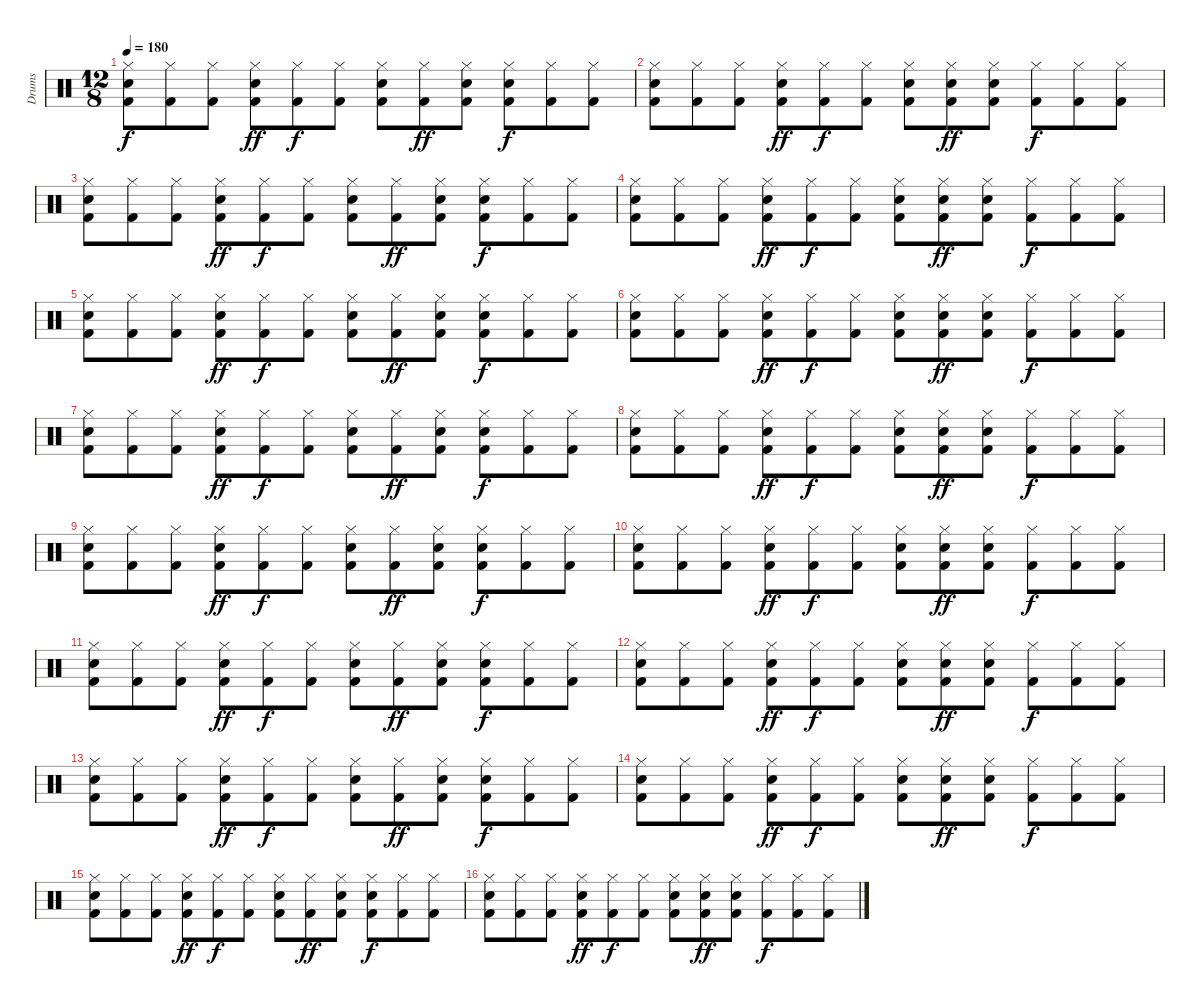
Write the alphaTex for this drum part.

\track ("Drums" "Drums") {instrument percussion}
\staff {score}
\articulation defaults
\ts (12 8)
\tempo 180
\clef neutral
\ks c
("Hi-Hat (closed)" "Electric Snare (hit)" "Kick (hit) 2").8{dy f} ("Hi-Hat (closed)" "Kick (hit) 2").8 ("Hi-Hat (closed)" "Kick (hit) 2").8 ("Hi-Hat (closed)" "Electric Snare (hit)" "Kick (hit) 2").8{dy ff} ("Hi-Hat (closed)" "Kick (hit) 2").8{dy f} ("Hi-Hat (closed)" "Kick (hit) 2").8 ("Hi-Hat (closed)" "Electric Snare (hit)" "Kick (hit) 2").8 ("Hi-Hat (closed)" "Kick (hit) 2").8{dy ff} ("Hi-Hat (closed)" "Electric Snare (hit)" "Kick (hit) 2").8 ("Hi-Hat (closed)" "Electric Snare (hit)" "Kick (hit) 2").8{dy f} ("Hi-Hat (closed)" "Kick (hit) 2").8 ("Hi-Hat (closed)" "Kick (hit) 2").8 |
("Hi-Hat (closed)" "Electric Snare (hit)" "Kick (hit) 2").8 ("Hi-Hat (closed)" "Kick (hit) 2").8 ("Hi-Hat (closed)" "Kick (hit) 2").8 ("Hi-Hat (closed)" "Electric Snare (hit)" "Kick (hit) 2").8{dy ff} ("Hi-Hat (closed)" "Kick (hit) 2").8{dy f} ("Hi-Hat (closed)" "Kick (hit) 2").8 ("Hi-Hat (closed)" "Electric Snare (hit)" "Kick (hit) 2").8 ("Hi-Hat (closed)" "Electric Snare (hit)" "Kick (hit) 2").8{dy ff} ("Hi-Hat (closed)" "Electric Snare (hit)" "Kick (hit) 2").8 ("Hi-Hat (closed)" "Kick (hit) 2").8{dy f} ("Hi-Hat (closed)" "Kick (hit) 2").8 ("Hi-Hat (closed)" "Kick (hit) 2").8 |
("Hi-Hat (closed)" "Electric Snare (hit)" "Kick (hit) 2").8 ("Hi-Hat (closed)" "Kick (hit) 2").8 ("Hi-Hat (closed)" "Kick (hit) 2").8 ("Hi-Hat (closed)" "Electric Snare (hit)" "Kick (hit) 2").8{dy ff} ("Hi-Hat (closed)" "Kick (hit) 2").8{dy f} ("Hi-Hat (closed)" "Kick (hit) 2").8 ("Hi-Hat (closed)" "Electric Snare (hit)" "Kick (hit) 2").8 ("Hi-Hat (closed)" "Kick (hit) 2").8{dy ff} ("Hi-Hat (closed)" "Electric Snare (hit)" "Kick (hit) 2").8 ("Hi-Hat (closed)" "Electric Snare (hit)" "Kick (hit) 2").8{dy f} ("Hi-Hat (closed)" "Kick (hit) 2").8 ("Hi-Hat (closed)" "Kick (hit) 2").8 |
("Hi-Hat (closed)" "Electric Snare (hit)" "Kick (hit) 2").8 ("Hi-Hat (closed)" "Kick (hit) 2").8 ("Hi-Hat (closed)" "Kick (hit) 2").8 ("Hi-Hat (closed)" "Electric Snare (hit)" "Kick (hit) 2").8{dy ff} ("Hi-Hat (closed)" "Kick (hit) 2").8{dy f} ("Hi-Hat (closed)" "Kick (hit) 2").8 ("Hi-Hat (closed)" "Electric Snare (hit)" "Kick (hit) 2").8 ("Hi-Hat (closed)" "Electric Snare (hit)" "Kick (hit) 2").8{dy ff} ("Hi-Hat (closed)" "Electric Snare (hit)" "Kick (hit) 2").8 ("Hi-Hat (closed)" "Kick (hit) 2").8{dy f} ("Hi-Hat (closed)" "Kick (hit) 2").8 ("Hi-Hat (closed)" "Kick (hit) 2").8 |
("Hi-Hat (closed)" "Electric Snare (hit)" "Kick (hit) 2").8 ("Hi-Hat (closed)" "Kick (hit) 2").8 ("Hi-Hat (closed)" "Kick (hit) 2").8 ("Hi-Hat (closed)" "Electric Snare (hit)" "Kick (hit) 2").8{dy ff} ("Hi-Hat (closed)" "Kick (hit) 2").8{dy f} ("Hi-Hat (closed)" "Kick (hit) 2").8 ("Hi-Hat (closed)" "Electric Snare (hit)" "Kick (hit) 2").8 ("Hi-Hat (closed)" "Kick (hit) 2").8{dy ff} ("Hi-Hat (closed)" "Electric Snare (hit)" "Kick (hit) 2").8 ("Hi-Hat (closed)" "Electric Snare (hit)" "Kick (hit) 2").8{dy f} ("Hi-Hat (closed)" "Kick (hit) 2").8 ("Hi-Hat (closed)" "Kick (hit) 2").8 |
("Hi-Hat (closed)" "Electric Snare (hit)" "Kick (hit) 2").8 ("Hi-Hat (closed)" "Kick (hit) 2").8 ("Hi-Hat (closed)" "Kick (hit) 2").8 ("Hi-Hat (closed)" "Electric Snare (hit)" "Kick (hit) 2").8{dy ff} ("Hi-Hat (closed)" "Kick (hit) 2").8{dy f} ("Hi-Hat (closed)" "Kick (hit) 2").8 ("Hi-Hat (closed)" "Electric Snare (hit)" "Kick (hit) 2").8 ("Hi-Hat (closed)" "Electric Snare (hit)" "Kick (hit) 2").8{dy ff} ("Hi-Hat (closed)" "Electric Snare (hit)" "Kick (hit) 2").8 ("Hi-Hat (closed)" "Kick (hit) 2").8{dy f} ("Hi-Hat (closed)" "Kick (hit) 2").8 ("Hi-Hat (closed)" "Kick (hit) 2").8 |
("Hi-Hat (closed)" "Electric Snare (hit)" "Kick (hit) 2").8 ("Hi-Hat (closed)" "Kick (hit) 2").8 ("Hi-Hat (closed)" "Kick (hit) 2").8 ("Hi-Hat (closed)" "Electric Snare (hit)" "Kick (hit) 2").8{dy ff} ("Hi-Hat (closed)" "Kick (hit) 2").8{dy f} ("Hi-Hat (closed)" "Kick (hit) 2").8 ("Hi-Hat (closed)" "Electric Snare (hit)" "Kick (hit) 2").8 ("Hi-Hat (closed)" "Kick (hit) 2").8{dy ff} ("Hi-Hat (closed)" "Electric Snare (hit)" "Kick (hit) 2").8 ("Hi-Hat (closed)" "Electric Snare (hit)" "Kick (hit) 2").8{dy f} ("Hi-Hat (closed)" "Kick (hit) 2").8 ("Hi-Hat (closed)" "Kick (hit) 2").8 |
("Hi-Hat (closed)" "Electric Snare (hit)" "Kick (hit) 2").8 ("Hi-Hat (closed)" "Kick (hit) 2").8 ("Hi-Hat (closed)" "Kick (hit) 2").8 ("Hi-Hat (closed)" "Electric Snare (hit)" "Kick (hit) 2").8{dy ff} ("Hi-Hat (closed)" "Kick (hit) 2").8{dy f} ("Hi-Hat (closed)" "Kick (hit) 2").8 ("Hi-Hat (closed)" "Electric Snare (hit)" "Kick (hit) 2").8 ("Hi-Hat (closed)" "Electric Snare (hit)" "Kick (hit) 2").8{dy ff} ("Hi-Hat (closed)" "Electric Snare (hit)" "Kick (hit) 2").8 ("Hi-Hat (closed)" "Kick (hit) 2").8{dy f} ("Hi-Hat (closed)" "Kick (hit) 2").8 ("Hi-Hat (closed)" "Kick (hit) 2").8 |
("Hi-Hat (closed)" "Electric Snare (hit)" "Kick (hit) 2").8 ("Hi-Hat (closed)" "Kick (hit) 2").8 ("Hi-Hat (closed)" "Kick (hit) 2").8 ("Hi-Hat (closed)" "Electric Snare (hit)" "Kick (hit) 2").8{dy ff} ("Hi-Hat (closed)" "Kick (hit) 2").8{dy f} ("Hi-Hat (closed)" "Kick (hit) 2").8 ("Hi-Hat (closed)" "Electric Snare (hit)" "Kick (hit) 2").8 ("Hi-Hat (closed)" "Kick (hit) 2").8{dy ff} ("Hi-Hat (closed)" "Electric Snare (hit)" "Kick (hit) 2").8 ("Hi-Hat (closed)" "Electric Snare (hit)" "Kick (hit) 2").8{dy f} ("Hi-Hat (closed)" "Kick (hit) 2").8 ("Hi-Hat (closed)" "Kick (hit) 2").8 |
("Hi-Hat (closed)" "Electric Snare (hit)" "Kick (hit) 2").8 ("Hi-Hat (closed)" "Kick (hit) 2").8 ("Hi-Hat (closed)" "Kick (hit) 2").8 ("Hi-Hat (closed)" "Electric Snare (hit)" "Kick (hit) 2").8{dy ff} ("Hi-Hat (closed)" "Kick (hit) 2").8{dy f} ("Hi-Hat (closed)" "Kick (hit) 2").8 ("Hi-Hat (closed)" "Electric Snare (hit)" "Kick (hit) 2").8 ("Hi-Hat (closed)" "Electric Snare (hit)" "Kick (hit) 2").8{dy ff} ("Hi-Hat (closed)" "Electric Snare (hit)" "Kick (hit) 2").8 ("Hi-Hat (closed)" "Kick (hit) 2").8{dy f} ("Hi-Hat (closed)" "Kick (hit) 2").8 ("Hi-Hat (closed)" "Kick (hit) 2").8 |
("Hi-Hat (closed)" "Electric Snare (hit)" "Kick (hit) 2").8 ("Hi-Hat (closed)" "Kick (hit) 2").8 ("Hi-Hat (closed)" "Kick (hit) 2").8 ("Hi-Hat (closed)" "Electric Snare (hit)" "Kick (hit) 2").8{dy ff} ("Hi-Hat (closed)" "Kick (hit) 2").8{dy f} ("Hi-Hat (closed)" "Kick (hit) 2").8 ("Hi-Hat (closed)" "Electric Snare (hit)" "Kick (hit) 2").8 ("Hi-Hat (closed)" "Kick (hit) 2").8{dy ff} ("Hi-Hat (closed)" "Electric Snare (hit)" "Kick (hit) 2").8 ("Hi-Hat (closed)" "Electric Snare (hit)" "Kick (hit) 2").8{dy f} ("Hi-Hat (closed)" "Kick (hit) 2").8 ("Hi-Hat (closed)" "Kick (hit) 2").8 |
("Hi-Hat (closed)" "Electric Snare (hit)" "Kick (hit) 2").8 ("Hi-Hat (closed)" "Kick (hit) 2").8 ("Hi-Hat (closed)" "Kick (hit) 2").8 ("Hi-Hat (closed)" "Electric Snare (hit)" "Kick (hit) 2").8{dy ff} ("Hi-Hat (closed)" "Kick (hit) 2").8{dy f} ("Hi-Hat (closed)" "Kick (hit) 2").8 ("Hi-Hat (closed)" "Electric Snare (hit)" "Kick (hit) 2").8 ("Hi-Hat (closed)" "Electric Snare (hit)" "Kick (hit) 2").8{dy ff} ("Hi-Hat (closed)" "Electric Snare (hit)" "Kick (hit) 2").8 ("Hi-Hat (closed)" "Kick (hit) 2").8{dy f} ("Hi-Hat (closed)" "Kick (hit) 2").8 ("Hi-Hat (closed)" "Kick (hit) 2").8 |
("Hi-Hat (closed)" "Electric Snare (hit)" "Kick (hit) 2").8 ("Hi-Hat (closed)" "Kick (hit) 2").8 ("Hi-Hat (closed)" "Kick (hit) 2").8 ("Hi-Hat (closed)" "Electric Snare (hit)" "Kick (hit) 2").8{dy ff} ("Hi-Hat (closed)" "Kick (hit) 2").8{dy f} ("Hi-Hat (closed)" "Kick (hit) 2").8 ("Hi-Hat (closed)" "Electric Snare (hit)" "Kick (hit) 2").8 ("Hi-Hat (closed)" "Kick (hit) 2").8{dy ff} ("Hi-Hat (closed)" "Electric Snare (hit)" "Kick (hit) 2").8 ("Hi-Hat (closed)" "Electric Snare (hit)" "Kick (hit) 2").8{dy f} ("Hi-Hat (closed)" "Kick (hit) 2").8 ("Hi-Hat (closed)" "Kick (hit) 2").8 |
("Hi-Hat (closed)" "Electric Snare (hit)" "Kick (hit) 2").8 ("Hi-Hat (closed)" "Kick (hit) 2").8 ("Hi-Hat (closed)" "Kick (hit) 2").8 ("Hi-Hat (closed)" "Electric Snare (hit)" "Kick (hit) 2").8{dy ff} ("Hi-Hat (closed)" "Kick (hit) 2").8{dy f} ("Hi-Hat (closed)" "Kick (hit) 2").8 ("Hi-Hat (closed)" "Electric Snare (hit)" "Kick (hit) 2").8 ("Hi-Hat (closed)" "Electric Snare (hit)" "Kick (hit) 2").8{dy ff} ("Hi-Hat (closed)" "Electric Snare (hit)" "Kick (hit) 2").8 ("Hi-Hat (closed)" "Kick (hit) 2").8{dy f} ("Hi-Hat (closed)" "Kick (hit) 2").8 ("Hi-Hat (closed)" "Kick (hit) 2").8 |
("Hi-Hat (closed)" "Electric Snare (hit)" "Kick (hit) 2").8 ("Hi-Hat (closed)" "Kick (hit) 2").8 ("Hi-Hat (closed)" "Kick (hit) 2").8 ("Hi-Hat (closed)" "Electric Snare (hit)" "Kick (hit) 2").8{dy ff} ("Hi-Hat (closed)" "Kick (hit) 2").8{dy f} ("Hi-Hat (closed)" "Kick (hit) 2").8 ("Hi-Hat (closed)" "Electric Snare (hit)" "Kick (hit) 2").8 ("Hi-Hat (closed)" "Kick (hit) 2").8{dy ff} ("Hi-Hat (closed)" "Electric Snare (hit)" "Kick (hit) 2").8 ("Hi-Hat (closed)" "Electric Snare (hit)" "Kick (hit) 2").8{dy f} ("Hi-Hat (closed)" "Kick (hit) 2").8 ("Hi-Hat (closed)" "Kick (hit) 2").8 |
("Hi-Hat (closed)" "Electric Snare (hit)" "Kick (hit) 2").8 ("Hi-Hat (closed)" "Kick (hit) 2").8 ("Hi-Hat (closed)" "Kick (hit) 2").8 ("Hi-Hat (closed)" "Electric Snare (hit)" "Kick (hit) 2").8{dy ff} ("Hi-Hat (closed)" "Kick (hit) 2").8{dy f} ("Hi-Hat (closed)" "Kick (hit) 2").8 ("Hi-Hat (closed)" "Electric Snare (hit)" "Kick (hit) 2").8 ("Hi-Hat (closed)" "Electric Snare (hit)" "Kick (hit) 2").8{dy ff} ("Hi-Hat (closed)" "Electric Snare (hit)" "Kick (hit) 2").8 ("Hi-Hat (closed)" "Kick (hit) 2").8{dy f} ("Hi-Hat (closed)" "Kick (hit) 2").8 ("Hi-Hat (closed)" "Kick (hit) 2").8
